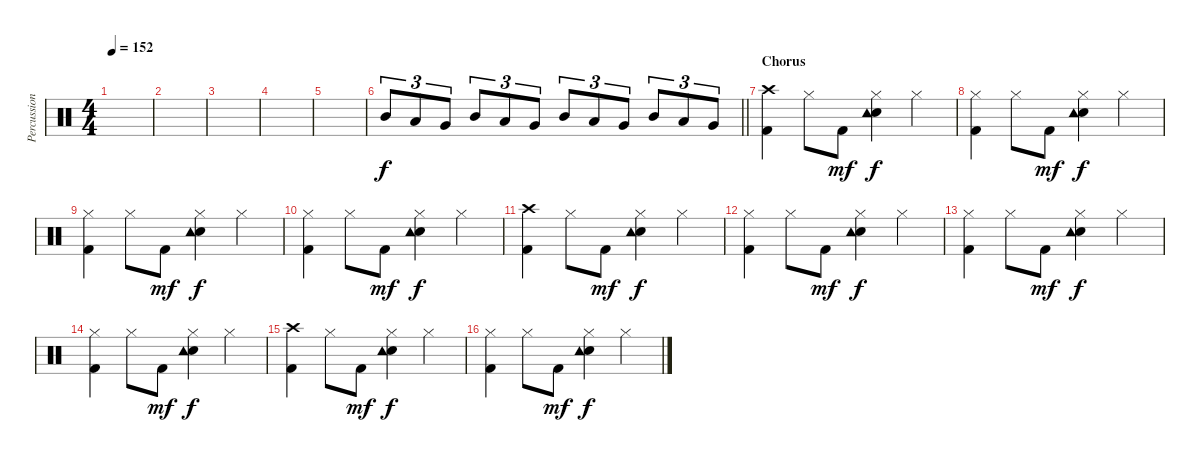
\track ("Percussion" "Percussion") {instrument percussion}
\staff {score}
\articulation defaults
\ts (4 4)
\tempo 152
\clef neutral
\ks c
|
|
|
|
|
\barLineRight lightlight "Mid Tom (hit)".8{tu (3 2)} "Low Tom (hit)".8{tu (3 2)} "Very Low Tom (hit)".8{tu (3 2)} "Mid Tom (hit)".8{tu (3 2)} "Low Tom (hit)".8{tu (3 2)} "Very Low Tom (hit)".8{tu (3 2)} "Mid Tom (hit)".8{tu (3 2)} "Low Tom (hit)".8{tu (3 2)} "Very Low Tom (hit)".8{tu (3 2)} "Mid Tom (hit)".8{tu (3 2)} "Low Tom (hit)".8{tu (3 2)} "Very Low Tom (hit)".8{tu (3 2)}
|
\section ("" "Chorus")
("Crash high (hit)" "Kick (hit) 2").4 "Hi-Hat (closed)".8 "Kick (hit) 2".8{dy mf} ("Hi-Hat (closed)" "Snare (hit) 2" "Tambourine (hit)").4{dy f} "Hi-Hat (closed)".4 |
("Hi-Hat (closed)" "Kick (hit) 2").4 "Hi-Hat (closed)".8 "Kick (hit) 2".8{dy mf} ("Hi-Hat (closed)" "Snare (hit) 2" "Tambourine (hit)").4{dy f} "Hi-Hat (closed)".4 |
("Hi-Hat (closed)" "Kick (hit) 2").4 "Hi-Hat (closed)".8 "Kick (hit) 2".8{dy mf} ("Hi-Hat (closed)" "Snare (hit) 2" "Tambourine (hit)").4{dy f} "Hi-Hat (closed)".4 |
("Hi-Hat (closed)" "Kick (hit) 2").4 "Hi-Hat (closed)".8 "Kick (hit) 2".8{dy mf} ("Hi-Hat (closed)" "Snare (hit) 2" "Tambourine (hit)").4{dy f} "Hi-Hat (closed)".4 |
("Crash high (hit)" "Kick (hit) 2").4 "Hi-Hat (closed)".8 "Kick (hit) 2".8{dy mf} ("Hi-Hat (closed)" "Snare (hit) 2" "Tambourine (hit)").4{dy f} "Hi-Hat (closed)".4 |
("Hi-Hat (closed)" "Kick (hit) 2").4 "Hi-Hat (closed)".8 "Kick (hit) 2".8{dy mf} ("Hi-Hat (closed)" "Snare (hit) 2" "Tambourine (hit)").4{dy f} "Hi-Hat (closed)".4 |
("Hi-Hat (closed)" "Kick (hit) 2").4 "Hi-Hat (closed)".8 "Kick (hit) 2".8{dy mf} ("Hi-Hat (closed)" "Snare (hit) 2" "Tambourine (hit)").4{dy f} "Hi-Hat (closed)".4 |
("Hi-Hat (closed)" "Kick (hit) 2").4 "Hi-Hat (closed)".8 "Kick (hit) 2".8{dy mf} ("Hi-Hat (closed)" "Snare (hit) 2" "Tambourine (hit)").4{dy f} "Hi-Hat (closed)".4 |
("Crash high (hit)" "Kick (hit) 2").4 "Hi-Hat (closed)".8 "Kick (hit) 2".8{dy mf} ("Hi-Hat (closed)" "Snare (hit) 2" "Tambourine (hit)").4{dy f} "Hi-Hat (closed)".4 |
("Hi-Hat (closed)" "Kick (hit) 2").4 "Hi-Hat (closed)".8 "Kick (hit) 2".8{dy mf} ("Hi-Hat (closed)" "Snare (hit) 2" "Tambourine (hit)").4{dy f} "Hi-Hat (closed)".4
